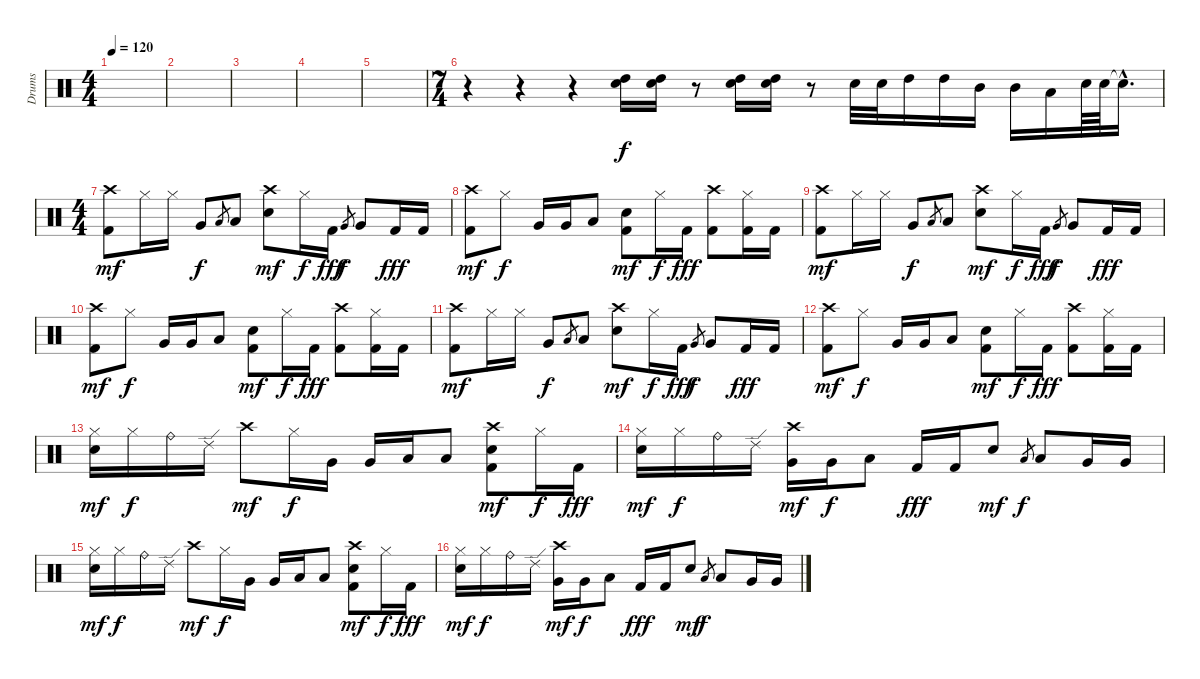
\track ("Drums" "Drums") {instrument percussion}
\staff {score}
\articulation defaults
\ts (4 4)
\tempo 120
\clef neutral
\ks c
|
|
|
|
|
\ts (7 4)
r.4 r.4 r.4 ("Electric Snare (hit)" "High Tom (hit)").16 ("Electric Snare (hit)" "High Tom (hit)").16 r.8 ("Electric Snare (hit)" "High Tom (hit)").16 ("Electric Snare (hit)" "High Tom (hit)").16 r.8 "Electric Snare (hit)".32 "Electric Snare (hit)".32 "High Tom (hit)".16 "High Tom (hit)".16 "Mid Tom (hit)".16 "Mid Tom (hit)".16 "Low Tom (hit)".16 "Electric Snare (hit)".64 "Electric Snare (hit)".64 "Snare (hit)"{hac t}.16{d} |
\ts (4 4)
("Kick (hit) 2" "Crash high (hit)").8{dy mf} "Hi-Hat (closed)".16 "Hi-Hat (closed)".16 "Very Low Tom (hit)".8{dy f} "Low Tom (hit)".8{gr} "Low Tom (hit)".8 ("Electric Snare (hit)" "Crash high (hit)").8{dy mf} "Hi-Hat (closed)".16{dy f} "Kick (hit) 2".16{dy fff} "Very Low Tom (hit)".8{gr dy f} "Very Low Tom (hit)".8 "Kick (hit) 2".16{dy fff} "Kick (hit) 2".16 |
("Kick (hit) 2" "Crash high (hit)").8{dy mf} "Hi-Hat (closed)".8{dy f} "Very Low Tom (hit)".16 "Very Low Tom (hit)".16 "Low Tom (hit)".8 ("Kick (hit) 2" "Electric Snare (hit)").8{dy mf} "Hi-Hat (closed)".16{dy f} "Kick (hit) 2".16{dy fff} ("Crash high (hit)" "Kick (hit) 2").8 ("Hi-Hat (closed)" "Kick (hit) 2").16 "Kick (hit) 2".16 |
("Kick (hit) 2" "Crash high (hit)").8{dy mf} "Hi-Hat (closed)".16 "Hi-Hat (closed)".16 "Very Low Tom (hit)".8{dy f} "Low Tom (hit)".8{gr} "Low Tom (hit)".8 ("Electric Snare (hit)" "Crash high (hit)").8{dy mf} "Hi-Hat (closed)".16{dy f} "Kick (hit) 2".16{dy fff} "Very Low Tom (hit)".8{gr dy f} "Very Low Tom (hit)".8 "Kick (hit) 2".16{dy fff} "Kick (hit) 2".16 |
("Kick (hit) 2" "Crash high (hit)").8{dy mf} "Hi-Hat (closed)".8{dy f} "Very Low Tom (hit)".16 "Very Low Tom (hit)".16 "Low Tom (hit)".8 ("Kick (hit) 2" "Electric Snare (hit)").8{dy mf} "Hi-Hat (closed)".16{dy f} "Kick (hit) 2".16{dy fff} ("Crash high (hit)" "Kick (hit) 2").8 ("Hi-Hat (closed)" "Kick (hit) 2").16 "Kick (hit) 2".16 |
("Kick (hit) 2" "Crash high (hit)").8{dy mf} "Hi-Hat (closed)".16 "Hi-Hat (closed)".16 "Very Low Tom (hit)".8{dy f} "Low Tom (hit)".8{gr} "Low Tom (hit)".8 ("Electric Snare (hit)" "Crash high (hit)").8{dy mf} "Hi-Hat (closed)".16{dy f} "Kick (hit) 2".16{dy fff} "Very Low Tom (hit)".8{gr dy f} "Very Low Tom (hit)".8 "Kick (hit) 2".16{dy fff} "Kick (hit) 2".16 |
("Kick (hit) 2" "Crash high (hit)").8{dy mf} "Hi-Hat (closed)".8{dy f} "Very Low Tom (hit)".16 "Very Low Tom (hit)".16 "Low Tom (hit)".8 ("Kick (hit) 2" "Electric Snare (hit)").8{dy mf} "Hi-Hat (closed)".16{dy f} "Kick (hit) 2".16{dy fff} ("Crash high (hit)" "Kick (hit) 2").8 ("Hi-Hat (closed)" "Kick (hit) 2").16 "Kick (hit) 2".16 |
("Hi-Hat (closed)" "Electric Snare (hit)").16{dy mf} "Hi-Hat (closed)".16{dy f} "Ride (bell)".16 "Ride (edge) 2".16 "Crash high (hit)".8{dy mf} "Hi-Hat (closed)".16{dy f} "Very Low Tom (hit)".16 "Very Low Tom (hit)".16 "Low Tom (hit)".16 "Low Tom (hit)".8 ("Electric Snare (hit)" "Kick (hit) 2" "Crash high (hit)").8{dy mf} "Hi-Hat (closed)".16{dy f} "Kick (hit) 2".16{dy fff} |
("Electric Snare (hit)" "Hi-Hat (closed)").16{dy mf} "Hi-Hat (closed)".16{dy f} "Ride (bell)".16 "Ride (edge) 2".16 ("Very Low Tom (hit)" "Crash high (hit)").16{dy mf} "Very Low Tom (hit)".16{dy f} "Low Tom (hit)".8 "Kick (hit) 2".16{dy fff} "Kick (hit) 2".16 "Electric Snare (hit)".8{dy mf} "Low Tom (hit)".8{gr dy f} "Low Tom (hit)".8 "Very Low Tom (hit)".16 "Very Low Tom (hit)".16 |
("Hi-Hat (closed)" "Electric Snare (hit)").16{dy mf} "Hi-Hat (closed)".16{dy f} "Ride (bell)".16 "Ride (edge) 2".16 "Crash high (hit)".8{dy mf} "Hi-Hat (closed)".16{dy f} "Very Low Tom (hit)".16 "Very Low Tom (hit)".16 "Low Tom (hit)".16 "Low Tom (hit)".8 ("Electric Snare (hit)" "Kick (hit) 2" "Crash high (hit)").8{dy mf} "Hi-Hat (closed)".16{dy f} "Kick (hit) 2".16{dy fff} |
("Electric Snare (hit)" "Hi-Hat (closed)").16{dy mf} "Hi-Hat (closed)".16{dy f} "Ride (bell)".16 "Ride (edge) 2".16 ("Very Low Tom (hit)" "Crash high (hit)").16{dy mf} "Very Low Tom (hit)".16{dy f} "Low Tom (hit)".8 "Kick (hit) 2".16{dy fff} "Kick (hit) 2".16 "Electric Snare (hit)".8{dy mf} "Low Tom (hit)".8{gr dy f} "Low Tom (hit)".8 "Very Low Tom (hit)".16 "Very Low Tom (hit)".16
